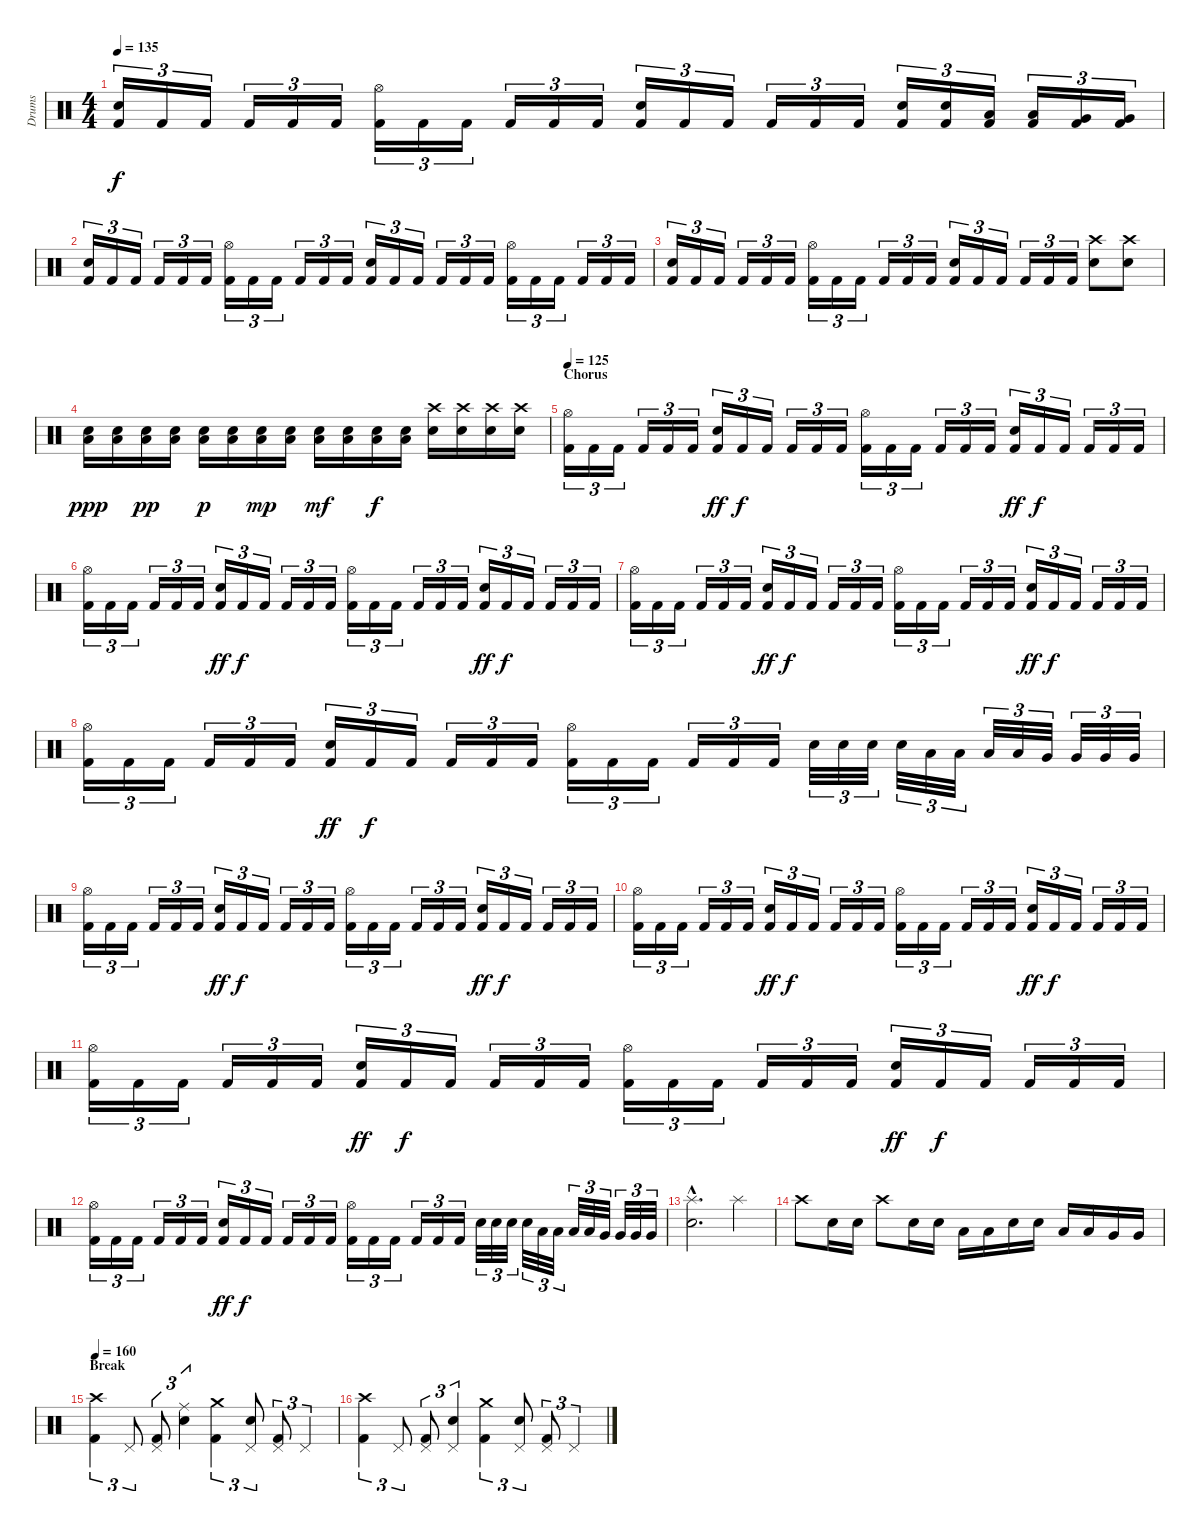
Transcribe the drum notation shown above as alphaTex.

\track ("Drums" "Drums") {instrument percussion}
\staff {score}
\articulation defaults
\ts (4 4)
\tempo 135
\clef neutral
\ks c
("Kick (hit) 2" "Electric Snare (hit)").16{tu (3 2) dy f} "Kick (hit) 2".16{tu (3 2)} "Kick (hit) 2".16{tu (3 2)} "Kick (hit) 2".16{tu (3 2)} "Kick (hit) 2".16{tu (3 2)} "Kick (hit) 2".16{tu (3 2)} ("Kick (hit) 2" "Hi-Hat (open)").16{tu (3 2)} "Kick (hit) 2".16{tu (3 2)} "Kick (hit) 2".16{tu (3 2)} "Kick (hit) 2".16{tu (3 2)} "Kick (hit) 2".16{tu (3 2)} "Kick (hit) 2".16{tu (3 2)} ("Kick (hit) 2" "Electric Snare (hit)").16{tu (3 2)} "Kick (hit) 2".16{tu (3 2)} "Kick (hit) 2".16{tu (3 2)} "Kick (hit) 2".16{tu (3 2)} "Kick (hit) 2".16{tu (3 2)} "Kick (hit) 2".16{tu (3 2)} ("Kick (hit) 2" "Electric Snare (hit)").16{tu (3 2)} ("Kick (hit) 2" "Electric Snare (hit)").16{tu (3 2)} ("Kick (hit) 2" "Low Tom (hit)").16{tu (3 2)} ("Kick (hit) 2" "Low Tom (hit)").16{tu (3 2)} ("Kick (hit) 2" "Very Low Tom (hit)").16{tu (3 2)} ("Kick (hit) 2" "Very Low Tom (hit)").16{tu (3 2)} |
("Kick (hit) 2" "Electric Snare (hit)").16{tu (3 2)} "Kick (hit) 2".16{tu (3 2)} "Kick (hit) 2".16{tu (3 2)} "Kick (hit) 2".16{tu (3 2)} "Kick (hit) 2".16{tu (3 2)} "Kick (hit) 2".16{tu (3 2)} ("Kick (hit) 2" "Hi-Hat (open)").16{tu (3 2)} "Kick (hit) 2".16{tu (3 2)} "Kick (hit) 2".16{tu (3 2)} "Kick (hit) 2".16{tu (3 2)} "Kick (hit) 2".16{tu (3 2)} "Kick (hit) 2".16{tu (3 2)} ("Kick (hit) 2" "Electric Snare (hit)").16{tu (3 2)} "Kick (hit) 2".16{tu (3 2)} "Kick (hit) 2".16{tu (3 2)} "Kick (hit) 2".16{tu (3 2)} "Kick (hit) 2".16{tu (3 2)} "Kick (hit) 2".16{tu (3 2)} ("Kick (hit) 2" "Hi-Hat (open)").16{tu (3 2)} "Kick (hit) 2".16{tu (3 2)} "Kick (hit) 2".16{tu (3 2)} "Kick (hit) 2".16{tu (3 2)} "Kick (hit) 2".16{tu (3 2)} "Kick (hit) 2".16{tu (3 2)} |
("Kick (hit) 2" "Electric Snare (hit)").16{tu (3 2)} "Kick (hit) 2".16{tu (3 2)} "Kick (hit) 2".16{tu (3 2)} "Kick (hit) 2".16{tu (3 2)} "Kick (hit) 2".16{tu (3 2)} "Kick (hit) 2".16{tu (3 2)} ("Kick (hit) 2" "Hi-Hat (open)").16{tu (3 2)} "Kick (hit) 2".16{tu (3 2)} "Kick (hit) 2".16{tu (3 2)} "Kick (hit) 2".16{tu (3 2)} "Kick (hit) 2".16{tu (3 2)} "Kick (hit) 2".16{tu (3 2)} ("Kick (hit) 2" "Electric Snare (hit)").16{tu (3 2)} "Kick (hit) 2".16{tu (3 2)} "Kick (hit) 2".16{tu (3 2)} "Kick (hit) 2".16{tu (3 2)} "Kick (hit) 2".16{tu (3 2)} "Kick (hit) 2".16{tu (3 2)} ("Crash high (hit)" "Electric Snare (hit)").8 ("Crash high (hit)" "Electric Snare (hit)").8 |
("Electric Snare (hit)" "Low Tom (hit)").16{dy ppp} ("Electric Snare (hit)" "Low Tom (hit)").16 ("Electric Snare (hit)" "Low Tom (hit)").16{dy pp} ("Electric Snare (hit)" "Low Tom (hit)").16 ("Electric Snare (hit)" "Low Tom (hit)").16{dy p} ("Electric Snare (hit)" "Low Tom (hit)").16 ("Electric Snare (hit)" "Low Tom (hit)").16{dy mp} ("Electric Snare (hit)" "Low Tom (hit)").16 ("Electric Snare (hit)" "Low Tom (hit)").16{dy mf} ("Electric Snare (hit)" "Low Tom (hit)").16 ("Electric Snare (hit)" "Low Tom (hit)").16{dy f} ("Electric Snare (hit)" "Low Tom (hit)").16 ("Electric Snare (hit)" "Crash high (hit)").16 ("Electric Snare (hit)" "Crash high (hit)").16 ("Electric Snare (hit)" "Crash high (hit)").16 ("Electric Snare (hit)" "Crash high (hit)").16 |
\section ("" "Chorus")
\tempo 125
("Hi-Hat (open)" "Kick (hit) 2").16{tu (3 2)} "Kick (hit) 2".16{tu (3 2)} "Kick (hit) 2".16{tu (3 2)} "Kick (hit) 2".16{tu (3 2)} "Kick (hit) 2".16{tu (3 2)} "Kick (hit) 2".16{tu (3 2)} ("Electric Snare (hit)" "Kick (hit) 2").16{tu (3 2) dy ff} "Kick (hit) 2".16{tu (3 2) dy f} "Kick (hit) 2".16{tu (3 2)} "Kick (hit) 2".16{tu (3 2)} "Kick (hit) 2".16{tu (3 2)} "Kick (hit) 2".16{tu (3 2)} ("Hi-Hat (open)" "Kick (hit) 2").16{tu (3 2)} "Kick (hit) 2".16{tu (3 2)} "Kick (hit) 2".16{tu (3 2)} "Kick (hit) 2".16{tu (3 2)} "Kick (hit) 2".16{tu (3 2)} "Kick (hit) 2".16{tu (3 2)} ("Electric Snare (hit)" "Kick (hit) 2").16{tu (3 2) dy ff} "Kick (hit) 2".16{tu (3 2) dy f} "Kick (hit) 2".16{tu (3 2)} "Kick (hit) 2".16{tu (3 2)} "Kick (hit) 2".16{tu (3 2)} "Kick (hit) 2".16{tu (3 2)} |
("Hi-Hat (open)" "Kick (hit) 2").16{tu (3 2)} "Kick (hit) 2".16{tu (3 2)} "Kick (hit) 2".16{tu (3 2)} "Kick (hit) 2".16{tu (3 2)} "Kick (hit) 2".16{tu (3 2)} "Kick (hit) 2".16{tu (3 2)} ("Electric Snare (hit)" "Kick (hit) 2").16{tu (3 2) dy ff} "Kick (hit) 2".16{tu (3 2) dy f} "Kick (hit) 2".16{tu (3 2)} "Kick (hit) 2".16{tu (3 2)} "Kick (hit) 2".16{tu (3 2)} "Kick (hit) 2".16{tu (3 2)} ("Hi-Hat (open)" "Kick (hit) 2").16{tu (3 2)} "Kick (hit) 2".16{tu (3 2)} "Kick (hit) 2".16{tu (3 2)} "Kick (hit) 2".16{tu (3 2)} "Kick (hit) 2".16{tu (3 2)} "Kick (hit) 2".16{tu (3 2)} ("Electric Snare (hit)" "Kick (hit) 2").16{tu (3 2) dy ff} "Kick (hit) 2".16{tu (3 2) dy f} "Kick (hit) 2".16{tu (3 2)} "Kick (hit) 2".16{tu (3 2)} "Kick (hit) 2".16{tu (3 2)} "Kick (hit) 2".16{tu (3 2)} |
("Hi-Hat (open)" "Kick (hit) 2").16{tu (3 2)} "Kick (hit) 2".16{tu (3 2)} "Kick (hit) 2".16{tu (3 2)} "Kick (hit) 2".16{tu (3 2)} "Kick (hit) 2".16{tu (3 2)} "Kick (hit) 2".16{tu (3 2)} ("Electric Snare (hit)" "Kick (hit) 2").16{tu (3 2) dy ff} "Kick (hit) 2".16{tu (3 2) dy f} "Kick (hit) 2".16{tu (3 2)} "Kick (hit) 2".16{tu (3 2)} "Kick (hit) 2".16{tu (3 2)} "Kick (hit) 2".16{tu (3 2)} ("Hi-Hat (open)" "Kick (hit) 2").16{tu (3 2)} "Kick (hit) 2".16{tu (3 2)} "Kick (hit) 2".16{tu (3 2)} "Kick (hit) 2".16{tu (3 2)} "Kick (hit) 2".16{tu (3 2)} "Kick (hit) 2".16{tu (3 2)} ("Electric Snare (hit)" "Kick (hit) 2").16{tu (3 2) dy ff} "Kick (hit) 2".16{tu (3 2) dy f} "Kick (hit) 2".16{tu (3 2)} "Kick (hit) 2".16{tu (3 2)} "Kick (hit) 2".16{tu (3 2)} "Kick (hit) 2".16{tu (3 2)} |
("Hi-Hat (open)" "Kick (hit) 2").16{tu (3 2)} "Kick (hit) 2".16{tu (3 2)} "Kick (hit) 2".16{tu (3 2)} "Kick (hit) 2".16{tu (3 2)} "Kick (hit) 2".16{tu (3 2)} "Kick (hit) 2".16{tu (3 2)} ("Electric Snare (hit)" "Kick (hit) 2").16{tu (3 2) dy ff} "Kick (hit) 2".16{tu (3 2) dy f} "Kick (hit) 2".16{tu (3 2)} "Kick (hit) 2".16{tu (3 2)} "Kick (hit) 2".16{tu (3 2)} "Kick (hit) 2".16{tu (3 2)} ("Hi-Hat (open)" "Kick (hit) 2").16{tu (3 2)} "Kick (hit) 2".16{tu (3 2)} "Kick (hit) 2".16{tu (3 2)} "Kick (hit) 2".16{tu (3 2)} "Kick (hit) 2".16{tu (3 2)} "Kick (hit) 2".16{tu (3 2)} "Electric Snare (hit)".32{tu (3 2)} "Electric Snare (hit)".32{tu (3 2)} "Electric Snare (hit)".32{tu (3 2)} "Electric Snare (hit)".32{tu (3 2)} "Low Tom (hit)".32{tu (3 2)} "Low Tom (hit)".32{tu (3 2)} "Low Tom (hit)".32{tu (3 2)} "Low Tom (hit)".32{tu (3 2)} "Very Low Tom (hit)".32{tu (3 2)} "Very Low Tom (hit)".32{tu (3 2)} "Very Low Tom (hit)".32{tu (3 2)} "Very Low Tom (hit)".32{tu (3 2)} |
("Hi-Hat (open)" "Kick (hit) 2").16{tu (3 2)} "Kick (hit) 2".16{tu (3 2)} "Kick (hit) 2".16{tu (3 2)} "Kick (hit) 2".16{tu (3 2)} "Kick (hit) 2".16{tu (3 2)} "Kick (hit) 2".16{tu (3 2)} ("Electric Snare (hit)" "Kick (hit) 2").16{tu (3 2) dy ff} "Kick (hit) 2".16{tu (3 2) dy f} "Kick (hit) 2".16{tu (3 2)} "Kick (hit) 2".16{tu (3 2)} "Kick (hit) 2".16{tu (3 2)} "Kick (hit) 2".16{tu (3 2)} ("Hi-Hat (open)" "Kick (hit) 2").16{tu (3 2)} "Kick (hit) 2".16{tu (3 2)} "Kick (hit) 2".16{tu (3 2)} "Kick (hit) 2".16{tu (3 2)} "Kick (hit) 2".16{tu (3 2)} "Kick (hit) 2".16{tu (3 2)} ("Electric Snare (hit)" "Kick (hit) 2").16{tu (3 2) dy ff} "Kick (hit) 2".16{tu (3 2) dy f} "Kick (hit) 2".16{tu (3 2)} "Kick (hit) 2".16{tu (3 2)} "Kick (hit) 2".16{tu (3 2)} "Kick (hit) 2".16{tu (3 2)} |
("Hi-Hat (open)" "Kick (hit) 2").16{tu (3 2)} "Kick (hit) 2".16{tu (3 2)} "Kick (hit) 2".16{tu (3 2)} "Kick (hit) 2".16{tu (3 2)} "Kick (hit) 2".16{tu (3 2)} "Kick (hit) 2".16{tu (3 2)} ("Electric Snare (hit)" "Kick (hit) 2").16{tu (3 2) dy ff} "Kick (hit) 2".16{tu (3 2) dy f} "Kick (hit) 2".16{tu (3 2)} "Kick (hit) 2".16{tu (3 2)} "Kick (hit) 2".16{tu (3 2)} "Kick (hit) 2".16{tu (3 2)} ("Hi-Hat (open)" "Kick (hit) 2").16{tu (3 2)} "Kick (hit) 2".16{tu (3 2)} "Kick (hit) 2".16{tu (3 2)} "Kick (hit) 2".16{tu (3 2)} "Kick (hit) 2".16{tu (3 2)} "Kick (hit) 2".16{tu (3 2)} ("Electric Snare (hit)" "Kick (hit) 2").16{tu (3 2) dy ff} "Kick (hit) 2".16{tu (3 2) dy f} "Kick (hit) 2".16{tu (3 2)} "Kick (hit) 2".16{tu (3 2)} "Kick (hit) 2".16{tu (3 2)} "Kick (hit) 2".16{tu (3 2)} |
("Hi-Hat (open)" "Kick (hit) 2").16{tu (3 2)} "Kick (hit) 2".16{tu (3 2)} "Kick (hit) 2".16{tu (3 2)} "Kick (hit) 2".16{tu (3 2)} "Kick (hit) 2".16{tu (3 2)} "Kick (hit) 2".16{tu (3 2)} ("Electric Snare (hit)" "Kick (hit) 2").16{tu (3 2) dy ff} "Kick (hit) 2".16{tu (3 2) dy f} "Kick (hit) 2".16{tu (3 2)} "Kick (hit) 2".16{tu (3 2)} "Kick (hit) 2".16{tu (3 2)} "Kick (hit) 2".16{tu (3 2)} ("Hi-Hat (open)" "Kick (hit) 2").16{tu (3 2)} "Kick (hit) 2".16{tu (3 2)} "Kick (hit) 2".16{tu (3 2)} "Kick (hit) 2".16{tu (3 2)} "Kick (hit) 2".16{tu (3 2)} "Kick (hit) 2".16{tu (3 2)} ("Electric Snare (hit)" "Kick (hit) 2").16{tu (3 2) dy ff} "Kick (hit) 2".16{tu (3 2) dy f} "Kick (hit) 2".16{tu (3 2)} "Kick (hit) 2".16{tu (3 2)} "Kick (hit) 2".16{tu (3 2)} "Kick (hit) 2".16{tu (3 2)} |
("Hi-Hat (open)" "Kick (hit) 2").16{tu (3 2)} "Kick (hit) 2".16{tu (3 2)} "Kick (hit) 2".16{tu (3 2)} "Kick (hit) 2".16{tu (3 2)} "Kick (hit) 2".16{tu (3 2)} "Kick (hit) 2".16{tu (3 2)} ("Electric Snare (hit)" "Kick (hit) 2").16{tu (3 2) dy ff} "Kick (hit) 2".16{tu (3 2) dy f} "Kick (hit) 2".16{tu (3 2)} "Kick (hit) 2".16{tu (3 2)} "Kick (hit) 2".16{tu (3 2)} "Kick (hit) 2".16{tu (3 2)} ("Hi-Hat (open)" "Kick (hit) 2").16{tu (3 2)} "Kick (hit) 2".16{tu (3 2)} "Kick (hit) 2".16{tu (3 2)} "Kick (hit) 2".16{tu (3 2)} "Kick (hit) 2".16{tu (3 2)} "Kick (hit) 2".16{tu (3 2)} "Electric Snare (hit)".32{tu (3 2)} "Electric Snare (hit)".32{tu (3 2)} "Electric Snare (hit)".32{tu (3 2)} "Electric Snare (hit)".32{tu (3 2)} "Low Tom (hit)".32{tu (3 2)} "Low Tom (hit)".32{tu (3 2)} "Low Tom (hit)".32{tu (3 2)} "Low Tom (hit)".32{tu (3 2)} "Very Low Tom (hit)".32{tu (3 2)} "Very Low Tom (hit)".32{tu (3 2)} "Very Low Tom (hit)".32{tu (3 2)} "Very Low Tom (hit)".32{tu (3 2)} |
("Electric Snare (hit)"{hac} "Splash (hit)"{hac}).2{d} "Splash (hit)".4 |
"Crash high (hit)".8 "Electric Snare (hit)".16 "Electric Snare (hit)".16 "Crash high (hit)".8 "Electric Snare (hit)".16 "Electric Snare (hit)".16 "Low Tom (hit)".16 "Low Tom (hit)".16 "Electric Snare (hit)".16 "Electric Snare (hit)".16 "Low Tom (hit)".16 "Low Tom (hit)".16 "Very Low Tom (hit)".16 "Very Low Tom (hit)".16 |
\section ("" "Break")
\tempo 160
("Crash high (hit)" "Kick (hit) 2").4{tu (3 2)} "Pedal Hi-Hat (hit)".8{tu (3 2)} ("Pedal Hi-Hat (hit)" "Kick (hit) 2").8{tu (3 2)} ("Ride (middle)" "Electric Snare (hit)").4{tu (3 2)} ("Crash medium (hit)" "Kick (hit) 2").4{tu (3 2)} ("Pedal Hi-Hat (hit)" "Electric Snare (hit)").8{tu (3 2)} ("Pedal Hi-Hat (hit)" "Kick (hit) 2").8{tu (3 2)} "Pedal Hi-Hat (hit)".4{tu (3 2)} |
("Crash high (hit)" "Kick (hit) 2").4{tu (3 2)} "Pedal Hi-Hat (hit)".8{tu (3 2)} ("Pedal Hi-Hat (hit)" "Kick (hit) 2").8{tu (3 2)} ("Pedal Hi-Hat (hit)" "Electric Snare (hit)").4{tu (3 2)} ("Crash medium (hit)" "Kick (hit) 2").4{tu (3 2)} ("Pedal Hi-Hat (hit)" "Electric Snare (hit)").8{tu (3 2)} ("Pedal Hi-Hat (hit)" "Kick (hit) 2").8{tu (3 2)} "Pedal Hi-Hat (hit)".4{tu (3 2)}
